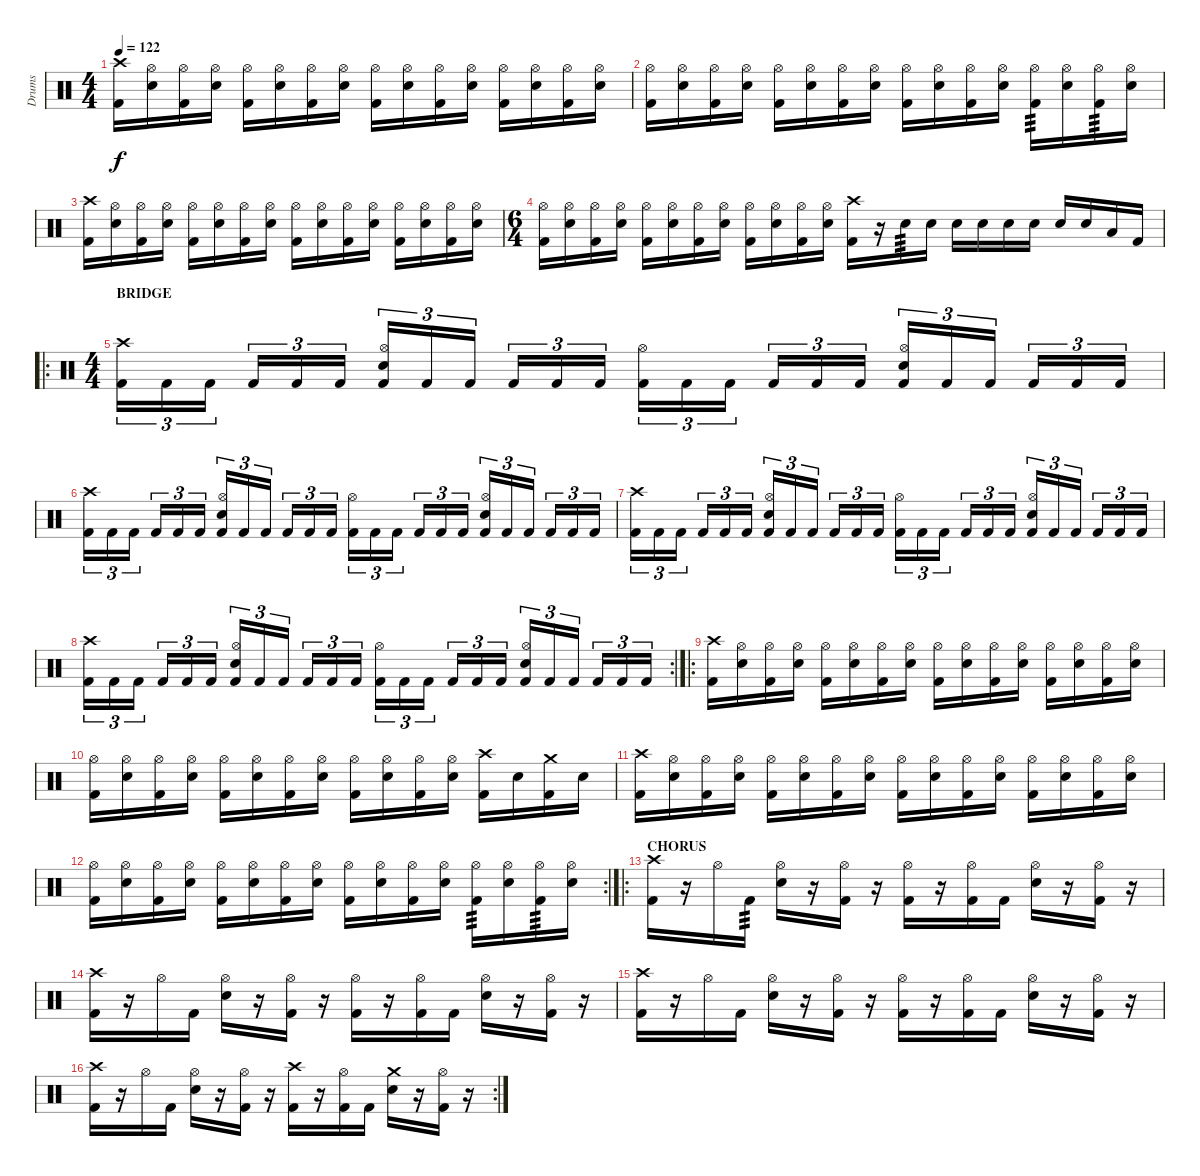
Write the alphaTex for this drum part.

\track ("Drums" "Drums") {instrument percussion}
\staff {score}
\articulation defaults
\ts (4 4)
\tempo 122
\clef neutral
\ks c
("Crash high (hit)" "Kick (hit) 2").16{dy f} ("Hi-Hat (open)" "Electric Snare (hit)").16 ("Hi-Hat (open)" "Kick (hit) 2").16 ("Hi-Hat (open)" "Electric Snare (hit)").16 ("Hi-Hat (open)" "Kick (hit) 2").16 ("Hi-Hat (open)" "Electric Snare (hit)").16 ("Hi-Hat (open)" "Kick (hit) 2").16 ("Hi-Hat (open)" "Electric Snare (hit)").16 ("Hi-Hat (open)" "Kick (hit) 2").16 ("Hi-Hat (open)" "Electric Snare (hit)").16 ("Hi-Hat (open)" "Kick (hit) 2").16 ("Hi-Hat (open)" "Electric Snare (hit)").16 ("Hi-Hat (open)" "Kick (hit) 2").16 ("Hi-Hat (open)" "Electric Snare (hit)").16 ("Hi-Hat (open)" "Kick (hit) 2").16 ("Hi-Hat (open)" "Electric Snare (hit)").16 |
("Hi-Hat (open)" "Kick (hit) 2").16 ("Hi-Hat (open)" "Electric Snare (hit)").16 ("Hi-Hat (open)" "Kick (hit) 2").16 ("Hi-Hat (open)" "Electric Snare (hit)").16 ("Hi-Hat (open)" "Kick (hit) 2").16 ("Hi-Hat (open)" "Electric Snare (hit)").16 ("Hi-Hat (open)" "Kick (hit) 2").16 ("Hi-Hat (open)" "Electric Snare (hit)").16 ("Hi-Hat (open)" "Kick (hit) 2").16 ("Hi-Hat (open)" "Electric Snare (hit)").16 ("Hi-Hat (open)" "Kick (hit) 2").16 ("Hi-Hat (open)" "Electric Snare (hit)").16 ("Hi-Hat (open)" "Kick (hit) 2").16{tp 3} ("Hi-Hat (open)" "Electric Snare (hit)").16 ("Hi-Hat (open)" "Kick (hit) 2").16{tp 3} ("Hi-Hat (open)" "Electric Snare (hit)").16 |
("Crash high (hit)" "Kick (hit) 2").16 ("Hi-Hat (open)" "Electric Snare (hit)").16 ("Hi-Hat (open)" "Kick (hit) 2").16 ("Hi-Hat (open)" "Electric Snare (hit)").16 ("Hi-Hat (open)" "Kick (hit) 2").16 ("Hi-Hat (open)" "Electric Snare (hit)").16 ("Hi-Hat (open)" "Kick (hit) 2").16 ("Hi-Hat (open)" "Electric Snare (hit)").16 ("Hi-Hat (open)" "Kick (hit) 2").16 ("Hi-Hat (open)" "Electric Snare (hit)").16 ("Hi-Hat (open)" "Kick (hit) 2").16 ("Hi-Hat (open)" "Electric Snare (hit)").16 ("Hi-Hat (open)" "Kick (hit) 2").16 ("Hi-Hat (open)" "Electric Snare (hit)").16 ("Hi-Hat (open)" "Kick (hit) 2").16 ("Hi-Hat (open)" "Electric Snare (hit)").16 |
\ts (6 4)
("Hi-Hat (open)" "Kick (hit) 2").16 ("Hi-Hat (open)" "Electric Snare (hit)").16 ("Hi-Hat (open)" "Kick (hit) 2").16 ("Hi-Hat (open)" "Electric Snare (hit)").16 ("Hi-Hat (open)" "Kick (hit) 2").16 ("Hi-Hat (open)" "Electric Snare (hit)").16 ("Hi-Hat (open)" "Kick (hit) 2").16 ("Hi-Hat (open)" "Electric Snare (hit)").16 ("Hi-Hat (open)" "Kick (hit) 2").16 ("Hi-Hat (open)" "Electric Snare (hit)").16 ("Hi-Hat (open)" "Kick (hit) 2").16 ("Hi-Hat (open)" "Electric Snare (hit)").16 ("Crash high (hit)" "Kick (hit) 2").16 r.16 "Electric Snare (hit)".16{tp 3} "Electric Snare (hit)".16 "Electric Snare (hit)".16 "Electric Snare (hit)".16 "Electric Snare (hit)".16 "Electric Snare (hit)".16 "Electric Snare (hit)".16 "Electric Snare (hit)".16 "Low Tom (hit)".16 "Kick (hit) 2".16 |
\ro
\ts (4 4)
\section ("" "BRIDGE")
("Crash high (hit)" "Kick (hit) 2").16{tu (3 2)} "Kick (hit) 2".16{tu (3 2)} "Kick (hit) 2".16{tu (3 2)} "Kick (hit) 2".16{tu (3 2)} "Kick (hit) 2".16{tu (3 2)} "Kick (hit) 2".16{tu (3 2)} ("Hi-Hat (open)" "Electric Snare (hit)" "Kick (hit) 2").16{tu (3 2)} "Kick (hit) 2".16{tu (3 2)} "Kick (hit) 2".16{tu (3 2)} "Kick (hit) 2".16{tu (3 2)} "Kick (hit) 2".16{tu (3 2)} "Kick (hit) 2".16{tu (3 2)} ("Hi-Hat (open)" "Kick (hit) 2").16{tu (3 2)} "Kick (hit) 2".16{tu (3 2)} "Kick (hit) 2".16{tu (3 2)} "Kick (hit) 2".16{tu (3 2)} "Kick (hit) 2".16{tu (3 2)} "Kick (hit) 2".16{tu (3 2)} ("Hi-Hat (open)" "Electric Snare (hit)" "Kick (hit) 2").16{tu (3 2)} "Kick (hit) 2".16{tu (3 2)} "Kick (hit) 2".16{tu (3 2)} "Kick (hit) 2".16{tu (3 2)} "Kick (hit) 2".16{tu (3 2)} "Kick (hit) 2".16{tu (3 2)} |
("Crash high (hit)" "Kick (hit) 2").16{tu (3 2)} "Kick (hit) 2".16{tu (3 2)} "Kick (hit) 2".16{tu (3 2)} "Kick (hit) 2".16{tu (3 2)} "Kick (hit) 2".16{tu (3 2)} "Kick (hit) 2".16{tu (3 2)} ("Hi-Hat (open)" "Electric Snare (hit)" "Kick (hit) 2").16{tu (3 2)} "Kick (hit) 2".16{tu (3 2)} "Kick (hit) 2".16{tu (3 2)} "Kick (hit) 2".16{tu (3 2)} "Kick (hit) 2".16{tu (3 2)} "Kick (hit) 2".16{tu (3 2)} ("Hi-Hat (open)" "Kick (hit) 2").16{tu (3 2)} "Kick (hit) 2".16{tu (3 2)} "Kick (hit) 2".16{tu (3 2)} "Kick (hit) 2".16{tu (3 2)} "Kick (hit) 2".16{tu (3 2)} "Kick (hit) 2".16{tu (3 2)} ("Hi-Hat (open)" "Electric Snare (hit)" "Kick (hit) 2").16{tu (3 2)} "Kick (hit) 2".16{tu (3 2)} "Kick (hit) 2".16{tu (3 2)} "Kick (hit) 2".16{tu (3 2)} "Kick (hit) 2".16{tu (3 2)} "Kick (hit) 2".16{tu (3 2)} |
("Crash high (hit)" "Kick (hit) 2").16{tu (3 2)} "Kick (hit) 2".16{tu (3 2)} "Kick (hit) 2".16{tu (3 2)} "Kick (hit) 2".16{tu (3 2)} "Kick (hit) 2".16{tu (3 2)} "Kick (hit) 2".16{tu (3 2)} ("Hi-Hat (open)" "Electric Snare (hit)" "Kick (hit) 2").16{tu (3 2)} "Kick (hit) 2".16{tu (3 2)} "Kick (hit) 2".16{tu (3 2)} "Kick (hit) 2".16{tu (3 2)} "Kick (hit) 2".16{tu (3 2)} "Kick (hit) 2".16{tu (3 2)} ("Hi-Hat (open)" "Kick (hit) 2").16{tu (3 2)} "Kick (hit) 2".16{tu (3 2)} "Kick (hit) 2".16{tu (3 2)} "Kick (hit) 2".16{tu (3 2)} "Kick (hit) 2".16{tu (3 2)} "Kick (hit) 2".16{tu (3 2)} ("Hi-Hat (open)" "Electric Snare (hit)" "Kick (hit) 2").16{tu (3 2)} "Kick (hit) 2".16{tu (3 2)} "Kick (hit) 2".16{tu (3 2)} "Kick (hit) 2".16{tu (3 2)} "Kick (hit) 2".16{tu (3 2)} "Kick (hit) 2".16{tu (3 2)} |
\rc 2
("Crash high (hit)" "Kick (hit) 2").16{tu (3 2)} "Kick (hit) 2".16{tu (3 2)} "Kick (hit) 2".16{tu (3 2)} "Kick (hit) 2".16{tu (3 2)} "Kick (hit) 2".16{tu (3 2)} "Kick (hit) 2".16{tu (3 2)} ("Hi-Hat (open)" "Electric Snare (hit)" "Kick (hit) 2").16{tu (3 2)} "Kick (hit) 2".16{tu (3 2)} "Kick (hit) 2".16{tu (3 2)} "Kick (hit) 2".16{tu (3 2)} "Kick (hit) 2".16{tu (3 2)} "Kick (hit) 2".16{tu (3 2)} ("Hi-Hat (open)" "Kick (hit) 2").16{tu (3 2)} "Kick (hit) 2".16{tu (3 2)} "Kick (hit) 2".16{tu (3 2)} "Kick (hit) 2".16{tu (3 2)} "Kick (hit) 2".16{tu (3 2)} "Kick (hit) 2".16{tu (3 2)} ("Hi-Hat (open)" "Electric Snare (hit)" "Kick (hit) 2").16{tu (3 2)} "Kick (hit) 2".16{tu (3 2)} "Kick (hit) 2".16{tu (3 2)} "Kick (hit) 2".16{tu (3 2)} "Kick (hit) 2".16{tu (3 2)} "Kick (hit) 2".16{tu (3 2)} |
\ro
("Crash high (hit)" "Kick (hit) 2").16 ("Hi-Hat (open)" "Electric Snare (hit)").16 ("Hi-Hat (open)" "Kick (hit) 2").16 ("Hi-Hat (open)" "Electric Snare (hit)").16 ("Hi-Hat (open)" "Kick (hit) 2").16 ("Hi-Hat (open)" "Electric Snare (hit)").16 ("Hi-Hat (open)" "Kick (hit) 2").16 ("Hi-Hat (open)" "Electric Snare (hit)").16 ("Hi-Hat (open)" "Kick (hit) 2").16 ("Hi-Hat (open)" "Electric Snare (hit)").16 ("Hi-Hat (open)" "Kick (hit) 2").16 ("Hi-Hat (open)" "Electric Snare (hit)").16 ("Hi-Hat (open)" "Kick (hit) 2").16 ("Hi-Hat (open)" "Electric Snare (hit)").16 ("Hi-Hat (open)" "Kick (hit) 2").16 ("Hi-Hat (open)" "Electric Snare (hit)").16 |
("Hi-Hat (open)" "Kick (hit) 2").16 ("Hi-Hat (open)" "Electric Snare (hit)").16 ("Hi-Hat (open)" "Kick (hit) 2").16 ("Hi-Hat (open)" "Electric Snare (hit)").16 ("Hi-Hat (open)" "Kick (hit) 2").16 ("Hi-Hat (open)" "Electric Snare (hit)").16 ("Hi-Hat (open)" "Kick (hit) 2").16 ("Hi-Hat (open)" "Electric Snare (hit)").16 ("Hi-Hat (open)" "Kick (hit) 2").16 ("Hi-Hat (open)" "Electric Snare (hit)").16 ("Hi-Hat (open)" "Kick (hit) 2").16 ("Hi-Hat (open)" "Electric Snare (hit)").16 ("Crash high (hit)" "Kick (hit) 2").16 "Electric Snare (hit)".16 ("Crash medium (hit)" "Kick (hit) 2").16 "Electric Snare (hit)".16 |
("Crash high (hit)" "Kick (hit) 2").16 ("Hi-Hat (open)" "Electric Snare (hit)").16 ("Hi-Hat (open)" "Kick (hit) 2").16 ("Hi-Hat (open)" "Electric Snare (hit)").16 ("Hi-Hat (open)" "Kick (hit) 2").16 ("Hi-Hat (open)" "Electric Snare (hit)").16 ("Hi-Hat (open)" "Kick (hit) 2").16 ("Hi-Hat (open)" "Electric Snare (hit)").16 ("Hi-Hat (open)" "Kick (hit) 2").16 ("Hi-Hat (open)" "Electric Snare (hit)").16 ("Hi-Hat (open)" "Kick (hit) 2").16 ("Hi-Hat (open)" "Electric Snare (hit)").16 ("Hi-Hat (open)" "Kick (hit) 2").16 ("Hi-Hat (open)" "Electric Snare (hit)").16 ("Hi-Hat (open)" "Kick (hit) 2").16 ("Hi-Hat (open)" "Electric Snare (hit)").16 |
\rc 2
("Hi-Hat (open)" "Kick (hit) 2").16 ("Hi-Hat (open)" "Electric Snare (hit)").16 ("Hi-Hat (open)" "Kick (hit) 2").16 ("Hi-Hat (open)" "Electric Snare (hit)").16 ("Hi-Hat (open)" "Kick (hit) 2").16 ("Hi-Hat (open)" "Electric Snare (hit)").16 ("Hi-Hat (open)" "Kick (hit) 2").16 ("Hi-Hat (open)" "Electric Snare (hit)").16 ("Hi-Hat (open)" "Kick (hit) 2").16 ("Hi-Hat (open)" "Electric Snare (hit)").16 ("Hi-Hat (open)" "Kick (hit) 2").16 ("Hi-Hat (open)" "Electric Snare (hit)").16 ("Hi-Hat (open)" "Kick (hit) 2").16{tp 3} ("Hi-Hat (open)" "Electric Snare (hit)").16 ("Hi-Hat (open)" "Kick (hit) 2").16{tp 3} ("Hi-Hat (open)" "Electric Snare (hit)").16 |
\ro
\section ("" "CHORUS")
("Crash high (hit)" "Kick (hit) 2").16 r.16 "Hi-Hat (open)".16 "Kick (hit) 2".16{tp 3} ("Hi-Hat (open)" "Electric Snare (hit)").16 r.16 ("Hi-Hat (open)" "Kick (hit) 2").16 r.16 ("Hi-Hat (open)" "Kick (hit) 2").16 r.16 ("Hi-Hat (open)" "Kick (hit) 2").16 "Kick (hit) 2".16 ("Hi-Hat (open)" "Electric Snare (hit)").16 r.16 ("Hi-Hat (open)" "Kick (hit) 2").16 r.16 |
("Crash high (hit)" "Kick (hit) 2").16 r.16 "Hi-Hat (open)".16 "Kick (hit) 2".16 ("Hi-Hat (open)" "Electric Snare (hit)").16 r.16 ("Hi-Hat (open)" "Kick (hit) 2").16 r.16 ("Hi-Hat (open)" "Kick (hit) 2").16 r.16 ("Hi-Hat (open)" "Kick (hit) 2").16 "Kick (hit) 2".16 ("Hi-Hat (open)" "Electric Snare (hit)").16 r.16 ("Hi-Hat (open)" "Kick (hit) 2").16 r.16 |
("Crash high (hit)" "Kick (hit) 2").16 r.16 "Hi-Hat (open)".16 "Kick (hit) 2".16 ("Hi-Hat (open)" "Electric Snare (hit)").16 r.16 ("Hi-Hat (open)" "Kick (hit) 2").16 r.16 ("Hi-Hat (open)" "Kick (hit) 2").16 r.16 ("Hi-Hat (open)" "Kick (hit) 2").16 "Kick (hit) 2".16 ("Hi-Hat (open)" "Electric Snare (hit)").16 r.16 ("Hi-Hat (open)" "Kick (hit) 2").16 r.16 |
\rc 2
("Crash high (hit)" "Kick (hit) 2").16 r.16 "Hi-Hat (open)".16 "Kick (hit) 2".16 ("Hi-Hat (open)" "Electric Snare (hit)").16 r.16 ("Hi-Hat (open)" "Kick (hit) 2").16 r.16 ("Crash high (hit)" "Kick (hit) 2").16 r.16 ("Hi-Hat (open)" "Kick (hit) 2").16 "Kick (hit) 2".16 ("Crash medium (hit)" "Electric Snare (hit)").16 r.16 ("Hi-Hat (open)" "Kick (hit) 2").16 r.16
